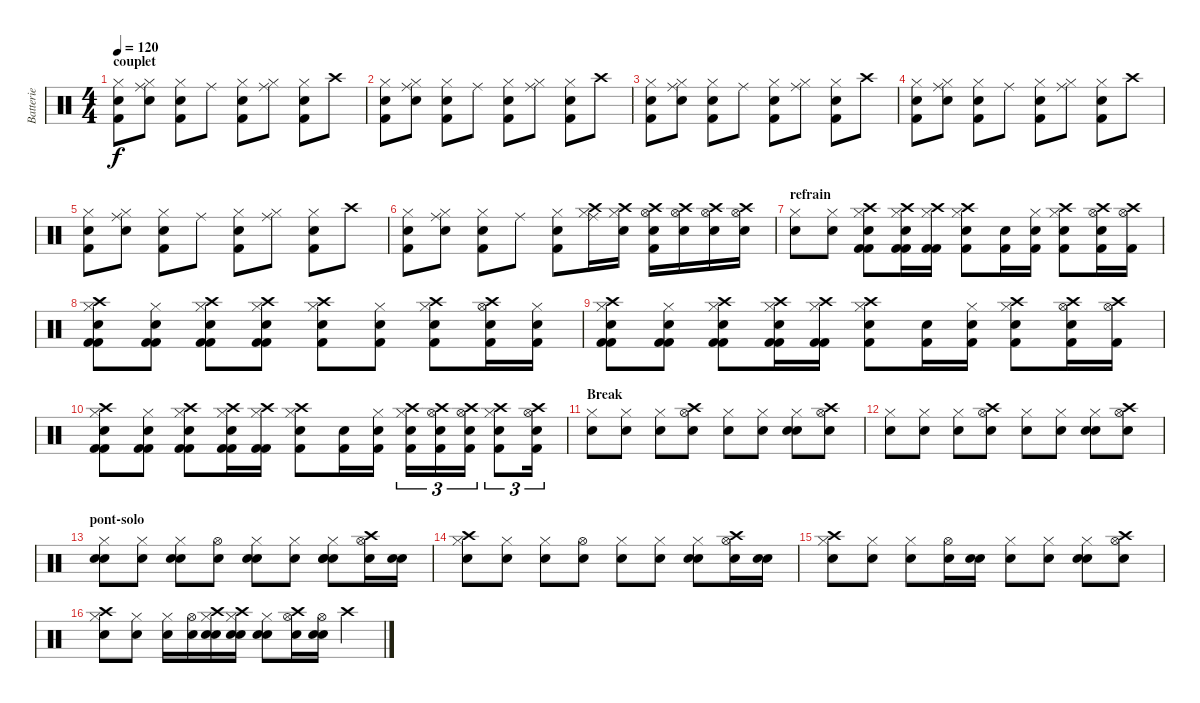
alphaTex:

\track ("Batterie" "Batterie") {instrument percussion}
\staff {score}
\articulation defaults
\ts (4 4)
\section ("" "couplet")
\tempo 120
\clef neutral
\ks c
("Hi-Hat (closed)" "Kick (hit) 2" "Snare (hit) 2").8{dy f} ("Hi-Hat (closed)" "Ride (middle)" "Snare (hit) 2").8 ("Hi-Hat (closed)" "Kick (hit) 2" "Snare (hit) 2").8 "Ride (middle)".8 ("Hi-Hat (closed)" "Kick (hit) 2" "Snare (hit) 2").8 ("Hi-Hat (closed)" "Ride (middle)").8 ("Hi-Hat (closed)" "Kick (hit) 2" "Snare (hit) 2").8 "Crash high (hit)".8 |
("Hi-Hat (closed)" "Kick (hit) 2" "Snare (hit) 2").8 ("Hi-Hat (closed)" "Ride (middle)" "Snare (hit) 2").8 ("Hi-Hat (closed)" "Kick (hit) 2" "Snare (hit) 2").8 "Ride (middle)".8 ("Hi-Hat (closed)" "Kick (hit) 2" "Snare (hit) 2").8 ("Hi-Hat (closed)" "Ride (middle)").8 ("Hi-Hat (closed)" "Kick (hit) 2" "Snare (hit) 2").8 "Crash high (hit)".8 |
("Hi-Hat (closed)" "Kick (hit) 2" "Snare (hit) 2").8 ("Hi-Hat (closed)" "Ride (middle)" "Snare (hit) 2").8 ("Hi-Hat (closed)" "Kick (hit) 2" "Snare (hit) 2").8 "Ride (middle)".8 ("Hi-Hat (closed)" "Kick (hit) 2" "Snare (hit) 2").8 ("Hi-Hat (closed)" "Ride (middle)").8 ("Hi-Hat (closed)" "Kick (hit) 2" "Snare (hit) 2").8 "Crash high (hit)".8 |
("Hi-Hat (closed)" "Kick (hit) 2" "Snare (hit) 2").8 ("Hi-Hat (closed)" "Ride (middle)" "Snare (hit) 2").8 ("Hi-Hat (closed)" "Kick (hit) 2" "Snare (hit) 2").8 "Ride (middle)".8 ("Hi-Hat (closed)" "Kick (hit) 2" "Snare (hit) 2").8 ("Hi-Hat (closed)" "Ride (middle)").8 ("Hi-Hat (closed)" "Kick (hit) 2" "Snare (hit) 2").8 "Crash high (hit)".8 |
("Hi-Hat (closed)" "Kick (hit) 2" "Snare (hit) 2").8 ("Hi-Hat (closed)" "Ride (middle)" "Snare (hit) 2").8 ("Hi-Hat (closed)" "Kick (hit) 2" "Snare (hit) 2").8 "Ride (middle)".8 ("Hi-Hat (closed)" "Kick (hit) 2" "Snare (hit) 2").8 ("Hi-Hat (closed)" "Ride (middle)").8 ("Hi-Hat (closed)" "Kick (hit) 2" "Snare (hit) 2").8 "Crash high (hit)".8 |
("Hi-Hat (closed)" "Kick (hit) 2" "Snare (hit) 2").8 ("Hi-Hat (closed)" "Ride (middle)" "Snare (hit) 2").8 ("Hi-Hat (closed)" "Kick (hit) 2" "Snare (hit) 2").8 "Ride (middle)".8 ("Hi-Hat (closed)" "Kick (hit) 2" "Snare (hit) 2").8 ("Hi-Hat (closed)" "Ride (middle)" "Crash high (hit)").16 ("Hi-Hat (closed)" "Snare (hit) 2" "Crash high (hit)").16 ("Hi-Hat (open)" "Kick (hit) 2" "Snare (hit) 2" "Crash high (hit)").16 ("Hi-Hat (open)" "Snare (hit) 2" "Crash high (hit)").16 ("Hi-Hat (open)" "Snare (hit) 2" "Crash high (hit)").16 ("Hi-Hat (open)" "Snare (hit) 2" "Crash high (hit)").16 |
\section ("" "refrain")
("Hi-Hat (closed)" "Snare (hit) 2").8 ("Hi-Hat (closed)" "Snare (hit) 2").8 ("Hi-Hat (closed)" "Crash high (hit)" "Snare (hit) 2" "Kick (hit) 2" "Kick (hit) 2").8 ("Hi-Hat (closed)" "Crash high (hit)" "Snare (hit) 2" "Kick (hit) 2" "Kick (hit) 2").16 ("Hi-Hat (closed)" "Crash high (hit)" "Kick (hit) 2" "Kick (hit) 2").16 ("Hi-Hat (closed)" "Crash high (hit)" "Snare (hit) 2" "Kick (hit) 2").8 ("Snare (hit) 2" "Kick (hit) 2").16 ("Hi-Hat (closed)" "Snare (hit) 2" "Kick (hit) 2").16 ("Hi-Hat (closed)" "Crash high (hit)" "Snare (hit) 2" "Kick (hit) 2").8 ("Hi-Hat (open)" "Crash high (hit)" "Snare (hit) 2" "Kick (hit) 2").16 ("Hi-Hat (open)" "Crash high (hit)" "Kick (hit) 2").16 |
("Hi-Hat (closed)" "Crash high (hit)" "Snare (hit) 2" "Kick (hit) 2" "Kick (hit) 2").8 ("Hi-Hat (closed)" "Snare (hit) 2" "Kick (hit) 2" "Kick (hit) 2").8 ("Hi-Hat (closed)" "Crash high (hit)" "Snare (hit) 2" "Kick (hit) 2" "Kick (hit) 2").8 ("Hi-Hat (closed)" "Crash high (hit)" "Snare (hit) 2" "Kick (hit) 2" "Kick (hit) 2").8 ("Hi-Hat (closed)" "Crash high (hit)" "Snare (hit) 2" "Kick (hit) 2").8 ("Hi-Hat (closed)" "Snare (hit) 2" "Kick (hit) 2").8 ("Hi-Hat (closed)" "Crash high (hit)" "Snare (hit) 2" "Kick (hit) 2").8 ("Hi-Hat (open)" "Crash high (hit)" "Snare (hit) 2" "Kick (hit) 2").16 ("Hi-Hat (closed)" "Snare (hit) 2" "Kick (hit) 2").16 |
("Hi-Hat (closed)" "Crash high (hit)" "Snare (hit) 2" "Kick (hit) 2" "Kick (hit) 2").8 ("Hi-Hat (closed)" "Snare (hit) 2" "Kick (hit) 2" "Kick (hit) 2").8 ("Hi-Hat (closed)" "Crash high (hit)" "Snare (hit) 2" "Kick (hit) 2" "Kick (hit) 2").8 ("Hi-Hat (closed)" "Crash high (hit)" "Snare (hit) 2" "Kick (hit) 2" "Kick (hit) 2").16 ("Hi-Hat (closed)" "Crash high (hit)" "Kick (hit) 2" "Kick (hit) 2").16 ("Hi-Hat (closed)" "Crash high (hit)" "Snare (hit) 2" "Kick (hit) 2").8 ("Snare (hit) 2" "Kick (hit) 2").16 ("Hi-Hat (closed)" "Snare (hit) 2" "Kick (hit) 2").16 ("Hi-Hat (closed)" "Crash high (hit)" "Snare (hit) 2" "Kick (hit) 2").8 ("Hi-Hat (open)" "Crash high (hit)" "Snare (hit) 2" "Kick (hit) 2").16 ("Hi-Hat (open)" "Crash high (hit)" "Kick (hit) 2").16 |
("Hi-Hat (closed)" "Crash high (hit)" "Snare (hit) 2" "Kick (hit) 2" "Kick (hit) 2").8 ("Hi-Hat (closed)" "Snare (hit) 2" "Kick (hit) 2" "Kick (hit) 2").8 ("Hi-Hat (closed)" "Crash high (hit)" "Snare (hit) 2" "Kick (hit) 2" "Kick (hit) 2").8 ("Hi-Hat (closed)" "Crash high (hit)" "Snare (hit) 2" "Kick (hit) 2" "Kick (hit) 2").16 ("Hi-Hat (closed)" "Crash high (hit)" "Kick (hit) 2" "Kick (hit) 2").16 ("Hi-Hat (closed)" "Crash high (hit)" "Snare (hit) 2" "Kick (hit) 2").8 ("Snare (hit) 2" "Kick (hit) 2").16 ("Hi-Hat (closed)" "Snare (hit) 2" "Kick (hit) 2").16 ("Hi-Hat (closed)" "Crash high (hit)" "Snare (hit) 2" "Kick (hit) 2").16{tu (3 2)} ("Hi-Hat (open)" "Crash high (hit)" "Snare (hit) 2" "Kick (hit) 2").16{tu (3 2)} ("Hi-Hat (open)" "Crash high (hit)" "Snare (hit) 2" "Kick (hit) 2").16{tu (3 2)} ("Hi-Hat (closed)" "Crash high (hit)" "Snare (hit) 2" "Kick (hit) 2").8{tu (3 2)} ("Hi-Hat (open)" "Crash high (hit)" "Snare (hit) 2" "Kick (hit) 2").16{tu (3 2)} |
\section ("" "Break")
("Hi-Hat (closed)" "Electric Snare (hit)").8 ("Hi-Hat (closed)" "Snare (hit) 2").8 ("Hi-Hat (closed)" "Electric Snare (hit)").8 ("Hi-Hat (open)" "Crash high (hit)" "Snare (hit) 2").8 ("Hi-Hat (closed)" "Electric Snare (hit)").8 ("Hi-Hat (closed)" "Snare (hit) 2").8 ("Hi-Hat (closed)" "Snare (hit) 2" "Electric Snare (hit)").8 ("Hi-Hat (open)" "Crash high (hit)" "Snare (hit) 2").8 |
("Hi-Hat (closed)" "Electric Snare (hit)").8 ("Hi-Hat (closed)" "Snare (hit) 2").8 ("Hi-Hat (closed)" "Electric Snare (hit)").8 ("Hi-Hat (open)" "Crash high (hit)" "Snare (hit) 2").8 ("Hi-Hat (closed)" "Electric Snare (hit)").8 ("Hi-Hat (closed)" "Snare (hit) 2").8 ("Hi-Hat (closed)" "Snare (hit) 2" "Electric Snare (hit)").8 ("Hi-Hat (open)" "Crash high (hit)" "Snare (hit) 2").8 |
\section ("" "pont-solo")
("Hi-Hat (closed)" "Electric Snare (hit)" "Snare (hit) 2").8 ("Hi-Hat (closed)" "Snare (hit) 2").8 ("Hi-Hat (closed)" "Electric Snare (hit)" "Snare (hit) 2").8 ("Hi-Hat (open)" "Snare (hit) 2").8 ("Hi-Hat (closed)" "Electric Snare (hit)" "Snare (hit) 2").8 ("Hi-Hat (closed)" "Snare (hit) 2").8 ("Hi-Hat (closed)" "Snare (hit) 2" "Electric Snare (hit)" "Snare (hit) 2").8 ("Hi-Hat (open)" "Crash high (hit)" "Snare (hit) 2").16 ("Electric Snare (hit)" "Snare (hit) 2").16 |
("Hi-Hat (closed)" "Crash high (hit)" "Electric Snare (hit)").8 ("Hi-Hat (closed)" "Snare (hit) 2").8 ("Hi-Hat (closed)" "Electric Snare (hit)").8 ("Hi-Hat (open)" "Snare (hit) 2").8 ("Hi-Hat (closed)" "Electric Snare (hit)").8 ("Hi-Hat (closed)" "Snare (hit) 2").8 ("Hi-Hat (closed)" "Snare (hit) 2" "Electric Snare (hit)").8 ("Hi-Hat (open)" "Crash high (hit)" "Snare (hit) 2").16 ("Electric Snare (hit)" "Snare (hit) 2").16 |
("Hi-Hat (closed)" "Crash high (hit)" "Electric Snare (hit)").8 ("Hi-Hat (closed)" "Snare (hit) 2").8 ("Hi-Hat (closed)" "Electric Snare (hit)").8 ("Hi-Hat (open)" "Snare (hit) 2").16 ("Electric Snare (hit)" "Snare (hit) 2").16 ("Hi-Hat (closed)" "Electric Snare (hit)").8 ("Hi-Hat (closed)" "Snare (hit) 2").8 ("Hi-Hat (closed)" "Snare (hit) 2" "Electric Snare (hit)").8 ("Hi-Hat (open)" "Crash high (hit)" "Snare (hit) 2").8 |
("Hi-Hat (closed)" "Crash high (hit)" "Electric Snare (hit)").8 ("Hi-Hat (closed)" "Snare (hit) 2").8 ("Hi-Hat (closed)" "Electric Snare (hit)").16 ("Hi-Hat (open)" "Snare (hit) 2").16 ("Hi-Hat (closed)" "Crash high (hit)" "Snare (hit) 2" "Electric Snare (hit)").16 ("Hi-Hat (closed)" "Crash high (hit)" "Snare (hit) 2" "Electric Snare (hit)").16 ("Hi-Hat (closed)" "Snare (hit) 2" "Electric Snare (hit)").8 ("Hi-Hat (open)" "Crash high (hit)" "Snare (hit) 2").16 ("Hi-Hat (open)" "Electric Snare (hit)" "Snare (hit) 2").16 "Crash high (hit)".4
